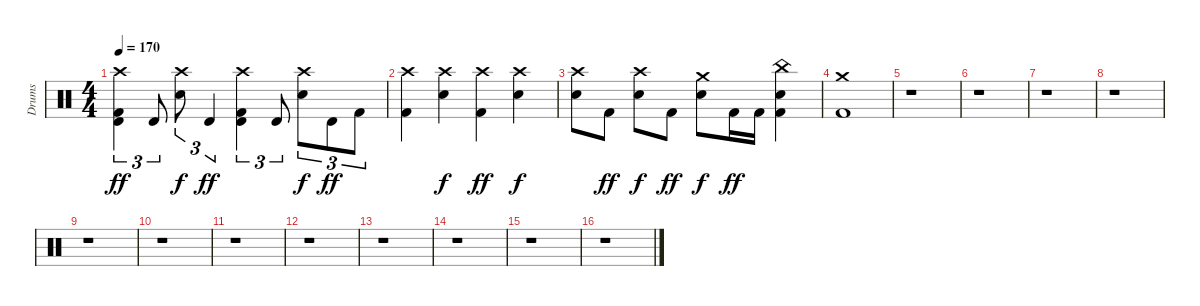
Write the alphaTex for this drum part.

\track ("Drums" "Drums") {instrument percussion}
\staff {score}
\articulation defaults
\ts (4 4)
\tempo 170
\clef neutral
\ks c
("Crash high (hit)" "Timbale high (hit)" "Kick (hit) 2").4{tu (3 2) dy ff} "Timbale high (hit)".8{tu (3 2)} ("Crash high (hit)" "Electric Snare (hit)").8{tu (3 2) dy f} "Timbale high (hit)".4{tu (3 2) dy ff} ("Crash high (hit)" "Timbale high (hit)" "Kick (hit) 2").4{tu (3 2)} "Timbale high (hit)".8{tu (3 2)} ("Crash high (hit)" "Electric Snare (hit)").8{tu (3 2) dy f} "Timbale high (hit)".8{tu (3 2) dy ff} "Kick (hit) 2".8{tu (3 2)} |
("Crash high (hit)" "Kick (hit) 2").4 ("Crash high (hit)" "Electric Snare (hit)").4{dy f} ("Crash high (hit)" "Kick (hit) 2").4{dy ff} ("Crash high (hit)" "Electric Snare (hit)").4{dy f} |
("Crash high (hit)" "Electric Snare (hit)").8 "Kick (hit) 2".8{dy ff} ("Crash high (hit)" "Electric Snare (hit)").8{dy f} "Kick (hit) 2".8{dy ff} ("Crash medium (hit)" "Electric Snare (hit)").8{dy f} "Kick (hit) 2".16{dy ff} "Kick (hit) 2".16 ("China (hit)" "Electric Snare (hit)" "Kick (hit) 2").4 |
("Crash medium (hit)" "Kick (hit) 2").1 |
r.1 |
r.1 |
r.1 |
r.1 |
r.1 |
r.1 |
r.1 |
r.1 |
r.1 |
r.1 |
r.1 |
r.1
